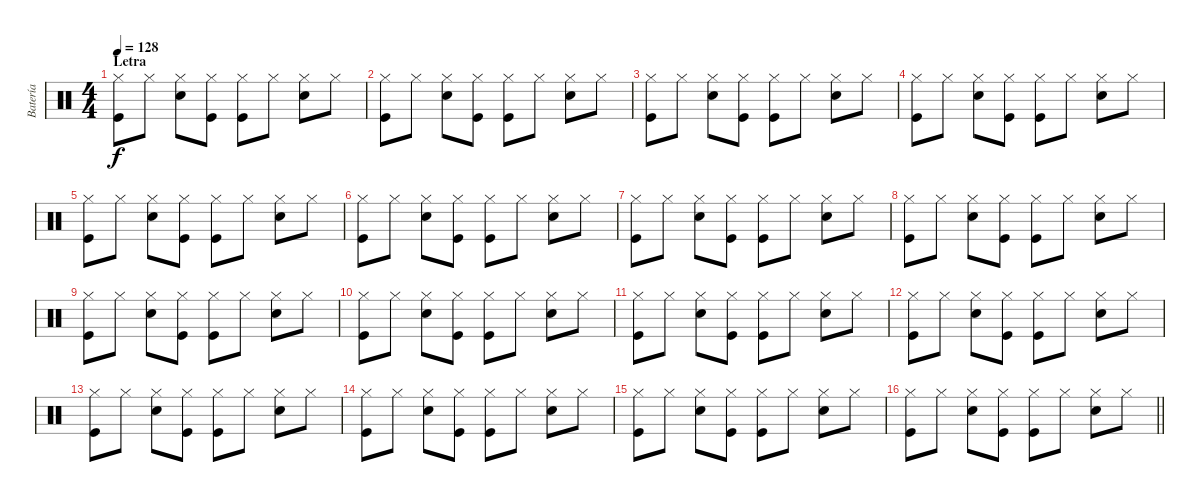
\track ("Batería" "Batería") {instrument percussion}
\staff {score}
\articulation defaults
\ts (4 4)
\section ("" "Letra")
\tempo 128
\clef neutral
\ks c
("Hi-Hat (closed)" "Kick (hit)").8{dy f} "Hi-Hat (closed)".8 ("Hi-Hat (closed)" "Snare (hit) 2").8 ("Hi-Hat (closed)" "Kick (hit)").8 ("Hi-Hat (closed)" "Kick (hit)").8 "Hi-Hat (closed)".8 ("Hi-Hat (closed)" "Snare (hit) 2").8 "Hi-Hat (closed)".8 |
("Hi-Hat (closed)" "Kick (hit)").8 "Hi-Hat (closed)".8 ("Hi-Hat (closed)" "Snare (hit) 2").8 ("Hi-Hat (closed)" "Kick (hit)").8 ("Hi-Hat (closed)" "Kick (hit)").8 "Hi-Hat (closed)".8 ("Hi-Hat (closed)" "Snare (hit) 2").8 "Hi-Hat (closed)".8 |
("Hi-Hat (closed)" "Kick (hit)").8 "Hi-Hat (closed)".8 ("Hi-Hat (closed)" "Snare (hit) 2").8 ("Hi-Hat (closed)" "Kick (hit)").8 ("Hi-Hat (closed)" "Kick (hit)").8 "Hi-Hat (closed)".8 ("Hi-Hat (closed)" "Snare (hit) 2").8 "Hi-Hat (closed)".8 |
("Hi-Hat (closed)" "Kick (hit)").8 "Hi-Hat (closed)".8 ("Hi-Hat (closed)" "Snare (hit) 2").8 ("Hi-Hat (closed)" "Kick (hit)").8 ("Hi-Hat (closed)" "Kick (hit)").8 "Hi-Hat (closed)".8 ("Hi-Hat (closed)" "Snare (hit) 2").8 "Hi-Hat (closed)".8 |
("Hi-Hat (closed)" "Kick (hit)").8 "Hi-Hat (closed)".8 ("Hi-Hat (closed)" "Snare (hit) 2").8 ("Hi-Hat (closed)" "Kick (hit)").8 ("Hi-Hat (closed)" "Kick (hit)").8 "Hi-Hat (closed)".8 ("Hi-Hat (closed)" "Snare (hit) 2").8 "Hi-Hat (closed)".8 |
("Hi-Hat (closed)" "Kick (hit)").8 "Hi-Hat (closed)".8 ("Hi-Hat (closed)" "Snare (hit) 2").8 ("Hi-Hat (closed)" "Kick (hit)").8 ("Hi-Hat (closed)" "Kick (hit)").8 "Hi-Hat (closed)".8 ("Hi-Hat (closed)" "Snare (hit) 2").8 "Hi-Hat (closed)".8 |
("Hi-Hat (closed)" "Kick (hit)").8 "Hi-Hat (closed)".8 ("Hi-Hat (closed)" "Snare (hit) 2").8 ("Hi-Hat (closed)" "Kick (hit)").8 ("Hi-Hat (closed)" "Kick (hit)").8 "Hi-Hat (closed)".8 ("Hi-Hat (closed)" "Snare (hit) 2").8 "Hi-Hat (closed)".8 |
("Hi-Hat (closed)" "Kick (hit)").8 "Hi-Hat (closed)".8 ("Hi-Hat (closed)" "Snare (hit) 2").8 ("Hi-Hat (closed)" "Kick (hit)").8 ("Hi-Hat (closed)" "Kick (hit)").8 "Hi-Hat (closed)".8 ("Hi-Hat (closed)" "Snare (hit) 2").8 "Hi-Hat (closed)".8 |
("Hi-Hat (closed)" "Kick (hit)").8 "Hi-Hat (closed)".8 ("Hi-Hat (closed)" "Snare (hit) 2").8 ("Hi-Hat (closed)" "Kick (hit)").8 ("Hi-Hat (closed)" "Kick (hit)").8 "Hi-Hat (closed)".8 ("Hi-Hat (closed)" "Snare (hit) 2").8 "Hi-Hat (closed)".8 |
("Hi-Hat (closed)" "Kick (hit)").8 "Hi-Hat (closed)".8 ("Hi-Hat (closed)" "Snare (hit) 2").8 ("Hi-Hat (closed)" "Kick (hit)").8 ("Hi-Hat (closed)" "Kick (hit)").8 "Hi-Hat (closed)".8 ("Hi-Hat (closed)" "Snare (hit) 2").8 "Hi-Hat (closed)".8 |
("Hi-Hat (closed)" "Kick (hit)").8 "Hi-Hat (closed)".8 ("Hi-Hat (closed)" "Snare (hit) 2").8 ("Hi-Hat (closed)" "Kick (hit)").8 ("Hi-Hat (closed)" "Kick (hit)").8 "Hi-Hat (closed)".8 ("Hi-Hat (closed)" "Snare (hit) 2").8 "Hi-Hat (closed)".8 |
("Hi-Hat (closed)" "Kick (hit)").8 "Hi-Hat (closed)".8 ("Hi-Hat (closed)" "Snare (hit) 2").8 ("Hi-Hat (closed)" "Kick (hit)").8 ("Hi-Hat (closed)" "Kick (hit)").8 "Hi-Hat (closed)".8 ("Hi-Hat (closed)" "Snare (hit) 2").8 "Hi-Hat (closed)".8 |
("Hi-Hat (closed)" "Kick (hit)").8 "Hi-Hat (closed)".8 ("Hi-Hat (closed)" "Snare (hit) 2").8 ("Hi-Hat (closed)" "Kick (hit)").8 ("Hi-Hat (closed)" "Kick (hit)").8 "Hi-Hat (closed)".8 ("Hi-Hat (closed)" "Snare (hit) 2").8 "Hi-Hat (closed)".8 |
("Hi-Hat (closed)" "Kick (hit)").8 "Hi-Hat (closed)".8 ("Hi-Hat (closed)" "Snare (hit) 2").8 ("Hi-Hat (closed)" "Kick (hit)").8 ("Hi-Hat (closed)" "Kick (hit)").8 "Hi-Hat (closed)".8 ("Hi-Hat (closed)" "Snare (hit) 2").8 "Hi-Hat (closed)".8 |
("Hi-Hat (closed)" "Kick (hit)").8 "Hi-Hat (closed)".8 ("Hi-Hat (closed)" "Snare (hit) 2").8 ("Hi-Hat (closed)" "Kick (hit)").8 ("Hi-Hat (closed)" "Kick (hit)").8 "Hi-Hat (closed)".8 ("Hi-Hat (closed)" "Snare (hit) 2").8 "Hi-Hat (closed)".8 |
\barLineRight lightlight
("Hi-Hat (closed)" "Kick (hit)").8 "Hi-Hat (closed)".8 ("Hi-Hat (closed)" "Snare (hit) 2").8 ("Hi-Hat (closed)" "Kick (hit)").8 ("Hi-Hat (closed)" "Kick (hit)").8 "Hi-Hat (closed)".8 ("Hi-Hat (closed)" "Snare (hit) 2").8 "Hi-Hat (closed)".8
